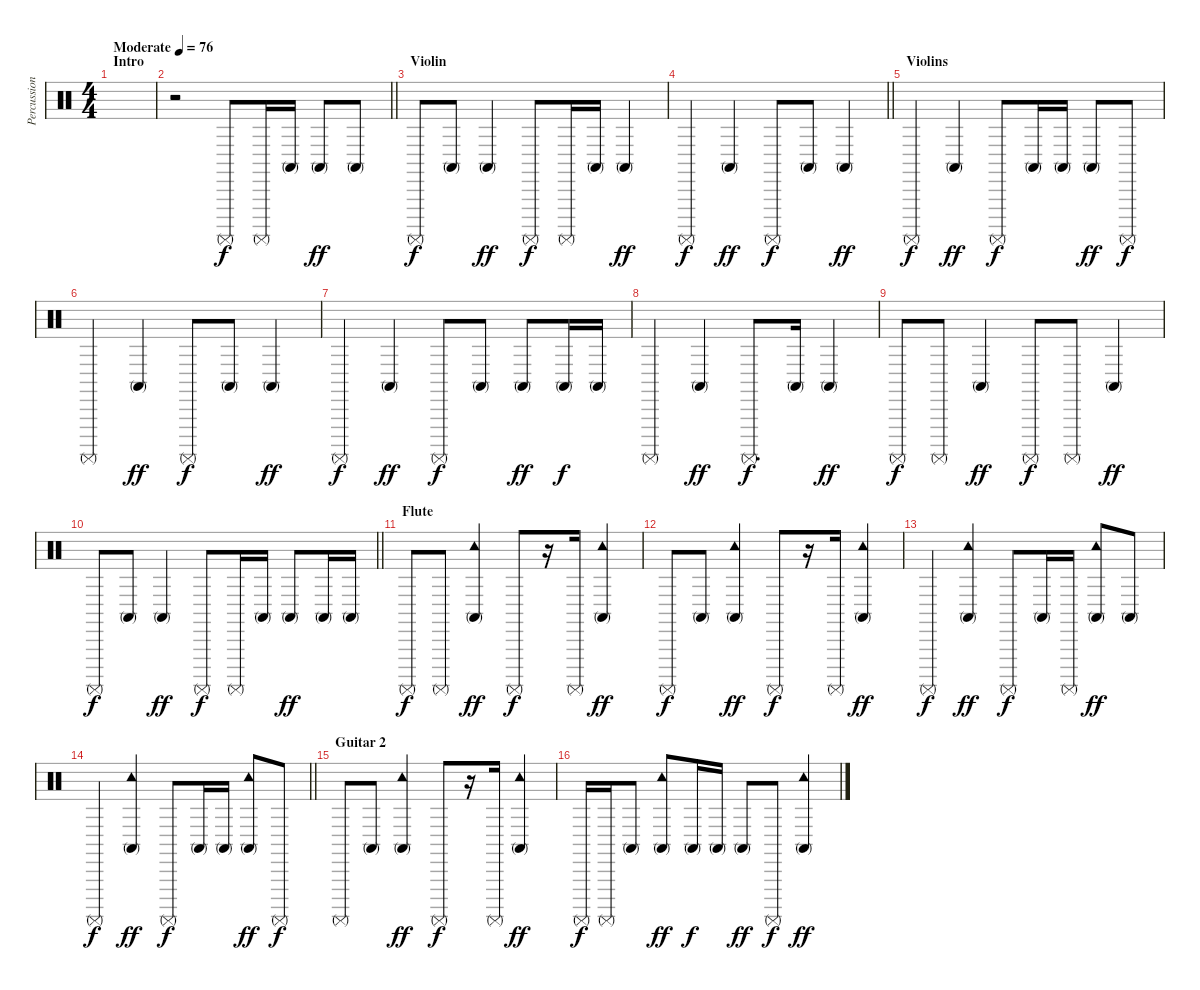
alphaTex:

\track ("Percussions" "Percussion") {instrument percussion}
\staff {score}
\articulation defaults
\ts (4 4)
\section ("" "Intro")
\tempo (76 "Moderate")
\clef neutral
\ks c
|
\barLineRight lightlight
r.2 "Surdo (mute)".8 "Surdo (mute)".16 "Conga high (mute)".16 "Conga high (mute)".8{dy ff} "Conga high (mute)".8 |
\section ("" "Violin")
"Surdo (mute)".8{dy f} "Conga high (mute)".8 "Conga high (mute)".4{dy ff} "Surdo (mute)".8{dy f} "Surdo (mute)".16 "Conga high (mute)".16 "Conga high (mute)".4{dy ff} |
\barLineRight lightlight "Surdo (mute)".4{dy f} "Conga high (mute)".4{dy ff} "Surdo (mute)".8{dy f} "Conga high (mute)".8 "Conga high (mute)".4{dy ff}
|
\section ("" "Violins")
"Surdo (mute)".4{dy f} "Conga high (mute)".4{dy ff} "Surdo (mute)".8{dy f} "Conga high (mute)".16 "Conga high (mute)".16 "Conga high (mute)".8{dy ff} "Surdo (mute)".8{dy f} |
"Surdo (mute)".4 "Conga high (mute)".4{dy ff} "Surdo (mute)".8{dy f} "Conga high (mute)".8 "Conga high (mute)".4{dy ff} |
"Surdo (mute)".4{dy f} "Conga high (mute)".4{dy ff} "Surdo (mute)".8{dy f} "Conga high (mute)".8 "Conga high (mute)".8{dy ff} "Conga high (mute)".16{dy f} "Conga high (mute)".16 |
"Surdo (mute)".4 "Conga high (mute)".4{dy ff} "Surdo (mute)".8{d dy f} "Conga high (mute)".16 "Conga high (mute)".4{dy ff} |
"Surdo (mute)".8{dy f} "Surdo (mute)".8 "Conga high (mute)".4{dy ff} "Surdo (mute)".8{dy f} "Surdo (mute)".8 "Conga high (mute)".4{dy ff} |
\barLineRight lightlight "Surdo (mute)".8{dy f} "Conga high (mute)".8 "Conga high (mute)".4{dy ff} "Surdo (mute)".8{dy f} "Surdo (mute)".16 "Conga high (mute)".16 "Conga high (mute)".8{dy ff} "Conga high (mute)".16 "Conga high (mute)".16
|
\section ("" "Flute")
"Surdo (mute)".8{dy f} "Surdo (mute)".8 ("Tambourine (hit)" "Conga high (mute)").4{dy ff} "Surdo (mute)".8{dy f} r.16 "Surdo (mute)".16 ("Tambourine (hit)" "Conga high (mute)").4{dy ff} |
"Surdo (mute)".8{dy f} "Conga high (mute)".8 ("Tambourine (hit)" "Conga high (mute)").4{dy ff} "Surdo (mute)".8{dy f} r.16 "Surdo (mute)".16 ("Tambourine (hit)" "Conga high (mute)").4{dy ff} |
"Surdo (mute)".4{dy f} ("Tambourine (hit)" "Conga high (mute)").4{dy ff} "Surdo (mute)".8{dy f} "Conga high (mute)".16 "Surdo (mute)".16 ("Tambourine (hit)" "Conga high (mute)").8{dy ff} "Conga high (mute)".8 |
\barLineRight lightlight "Surdo (mute)".4{dy f}
("Tambourine (hit)" "Conga high (mute)").4{dy ff} "Surdo (mute)".8{dy f} "Conga high (mute)".16 "Conga high (mute)".16 ("Tambourine (hit)" "Conga high (mute)").8{dy ff} "Surdo (mute)".8{dy f} |
\section ("" "Guitar 2")
"Surdo (mute)".8 "Conga high (mute)".8 ("Tambourine (hit)" "Conga high (mute)").4{dy ff} "Surdo (mute)".8{dy f} r.16 "Surdo (mute)".16 ("Tambourine (hit)" "Conga high (mute)").4{dy ff} |
"Surdo (mute)".16{dy f} "Surdo (mute)".16 "Conga high (mute)".8 ("Tambourine (hit)" "Conga high (mute)").8{dy ff} "Conga high (mute)".16{dy f} "Conga high (mute)".16 "Conga high (mute)".8{dy ff} "Surdo (mute)".8{dy f} ("Tambourine (hit)" "Conga high (mute)").4{dy ff}
